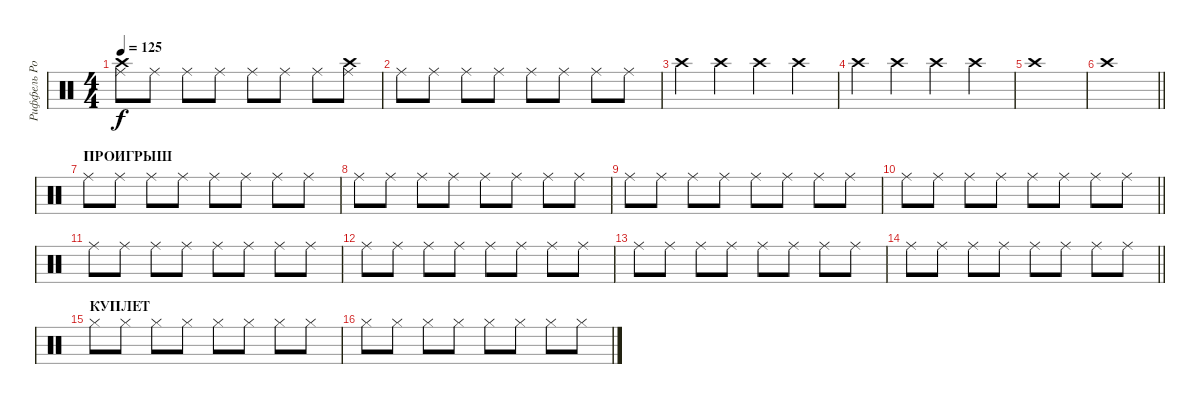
\track ("Риффель Роман(хэты)" "Риффель Ро") {instrument percussion}
\staff {score}
\articulation defaults
\ts (4 4)
\tempo 125
\clef neutral
\ks c
("Ride (middle)" "Crash high (hit)").8{dy f} "Ride (middle)".8 "Ride (middle)".8 "Ride (middle)".8 "Ride (middle)".8 "Ride (middle)".8 "Ride (middle)".8 ("Ride (middle)" "Crash high (hit)").8 |
"Ride (middle)".8 "Ride (middle)".8 "Ride (middle)".8 "Ride (middle)".8 "Ride (middle)".8 "Ride (middle)".8 "Ride (middle)".8 "Ride (middle)".8 |
"Crash high (hit)".4 "Crash high (hit)".4 "Crash high (hit)".4 "Crash high (hit)".4 |
"Crash high (hit)".4 "Crash high (hit)".4 "Crash high (hit)".4 "Crash high (hit)".4 |
"Crash high (hit)".1 |
\barLineRight lightlight "Crash high (hit)".1
|
\section ("" "ПРОИГРЫШ")
"Ride (middle)".8 "Ride (middle)".8 "Ride (middle)".8 "Ride (middle)".8 "Ride (middle)".8 "Ride (middle)".8 "Ride (middle)".8 "Ride (middle)".8 |
"Ride (middle)".8 "Ride (middle)".8 "Ride (middle)".8 "Ride (middle)".8 "Ride (middle)".8 "Ride (middle)".8 "Ride (middle)".8 "Ride (middle)".8 |
"Ride (middle)".8 "Ride (middle)".8 "Ride (middle)".8 "Ride (middle)".8 "Ride (middle)".8 "Ride (middle)".8 "Ride (middle)".8 "Ride (middle)".8 |
\barLineRight lightlight "Ride (middle)".8 "Ride (middle)".8 "Ride (middle)".8 "Ride (middle)".8 "Ride (middle)".8 "Ride (middle)".8 "Ride (middle)".8 "Ride (middle)".8
|
"Ride (middle)".8 "Ride (middle)".8 "Ride (middle)".8 "Ride (middle)".8 "Ride (middle)".8 "Ride (middle)".8 "Ride (middle)".8 "Ride (middle)".8 |
"Ride (middle)".8 "Ride (middle)".8 "Ride (middle)".8 "Ride (middle)".8 "Ride (middle)".8 "Ride (middle)".8 "Ride (middle)".8 "Ride (middle)".8 |
"Ride (middle)".8 "Ride (middle)".8 "Ride (middle)".8 "Ride (middle)".8 "Ride (middle)".8 "Ride (middle)".8 "Ride (middle)".8 "Ride (middle)".8 |
\barLineRight lightlight "Ride (middle)".8 "Ride (middle)".8 "Ride (middle)".8 "Ride (middle)".8 "Ride (middle)".8 "Ride (middle)".8 "Ride (middle)".8 "Ride (middle)".8
|
\section ("" "КУПЛЕТ")
"Hi-Hat (closed)".8 "Hi-Hat (closed)".8 "Hi-Hat (closed)".8 "Hi-Hat (closed)".8 "Hi-Hat (closed)".8 "Hi-Hat (closed)".8 "Hi-Hat (closed)".8 "Hi-Hat (closed)".8 |
"Hi-Hat (closed)".8 "Hi-Hat (closed)".8 "Hi-Hat (closed)".8 "Hi-Hat (closed)".8 "Hi-Hat (closed)".8 "Hi-Hat (closed)".8 "Hi-Hat (closed)".8 "Hi-Hat (closed)".8
